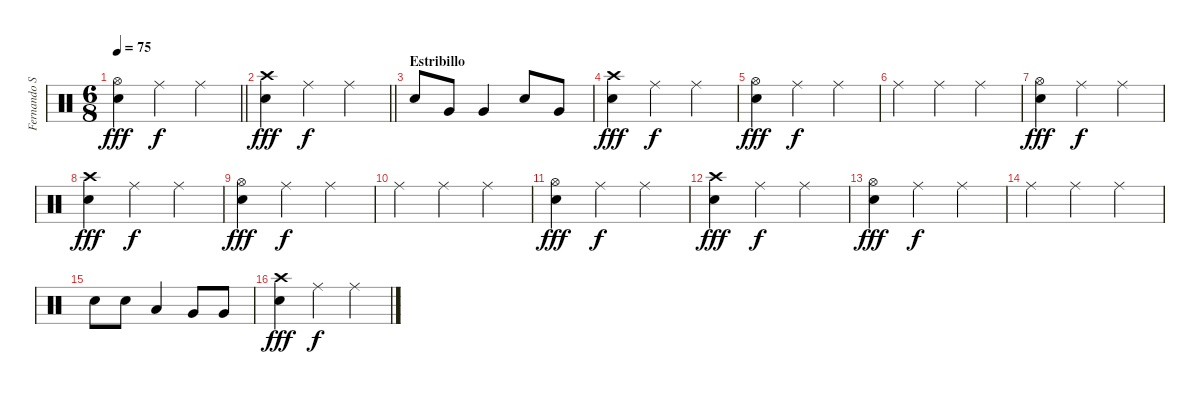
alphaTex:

\track ("Fernando Scarcella " "Fernando S") {instrument percussion}
\staff {score}
\articulation defaults
\ts (6 8)
\tempo 75
\clef neutral
\barLineRight lightlight
\ks c
("Hi-Hat (open)" "Snare (hit) 2").4{dy fff} "Ride (middle)".4{dy f} "Ride (middle)".4 |
\section ("" "")
\barLineRight lightlight
("Snare (hit) 2" "Crash high (hit)").4{dy fff} "Ride (middle)".4{dy f} "Ride (middle)".4 |
\section ("" "Estribillo")
"Snare (hit) 2".8 "Very Low Tom (hit)".8 "Very Low Tom (hit)".4 "Snare (hit) 2".8 "Very Low Tom (hit)".8 |
("Snare (hit) 2" "Crash high (hit)").4{dy fff} "Ride (middle)".4{dy f} "Ride (middle)".4 |
("Hi-Hat (open)" "Snare (hit) 2").4{dy fff} "Ride (middle)".4{dy f} "Ride (middle)".4 |
"Ride (middle)".4 "Ride (middle)".4 "Ride (middle)".4 |
("Hi-Hat (open)" "Snare (hit) 2").4{dy fff} "Ride (middle)".4{dy f} "Ride (middle)".4 |
("Snare (hit) 2" "Crash high (hit)").4{dy fff} "Ride (middle)".4{dy f} "Ride (middle)".4 |
("Hi-Hat (open)" "Snare (hit) 2").4{dy fff} "Ride (middle)".4{dy f} "Ride (middle)".4 |
"Ride (middle)".4 "Ride (middle)".4 "Ride (middle)".4 |
("Hi-Hat (open)" "Snare (hit) 2").4{dy fff} "Ride (middle)".4{dy f} "Ride (middle)".4 |
("Snare (hit) 2" "Crash high (hit)").4{dy fff} "Ride (middle)".4{dy f} "Ride (middle)".4 |
("Hi-Hat (open)" "Snare (hit) 2").4{dy fff} "Ride (middle)".4{dy f} "Ride (middle)".4 |
"Ride (middle)".4 "Ride (middle)".4 "Ride (middle)".4 |
"Electric Snare (hit)".8 "Electric Snare (hit)".8 "Low Floor Tom (hit)".4 "Very Low Tom (hit)".8 "Very Low Tom (hit)".8 |
("Snare (hit) 2" "Crash high (hit)").4{dy fff} "Ride (middle)".4{dy f} "Ride (middle)".4
